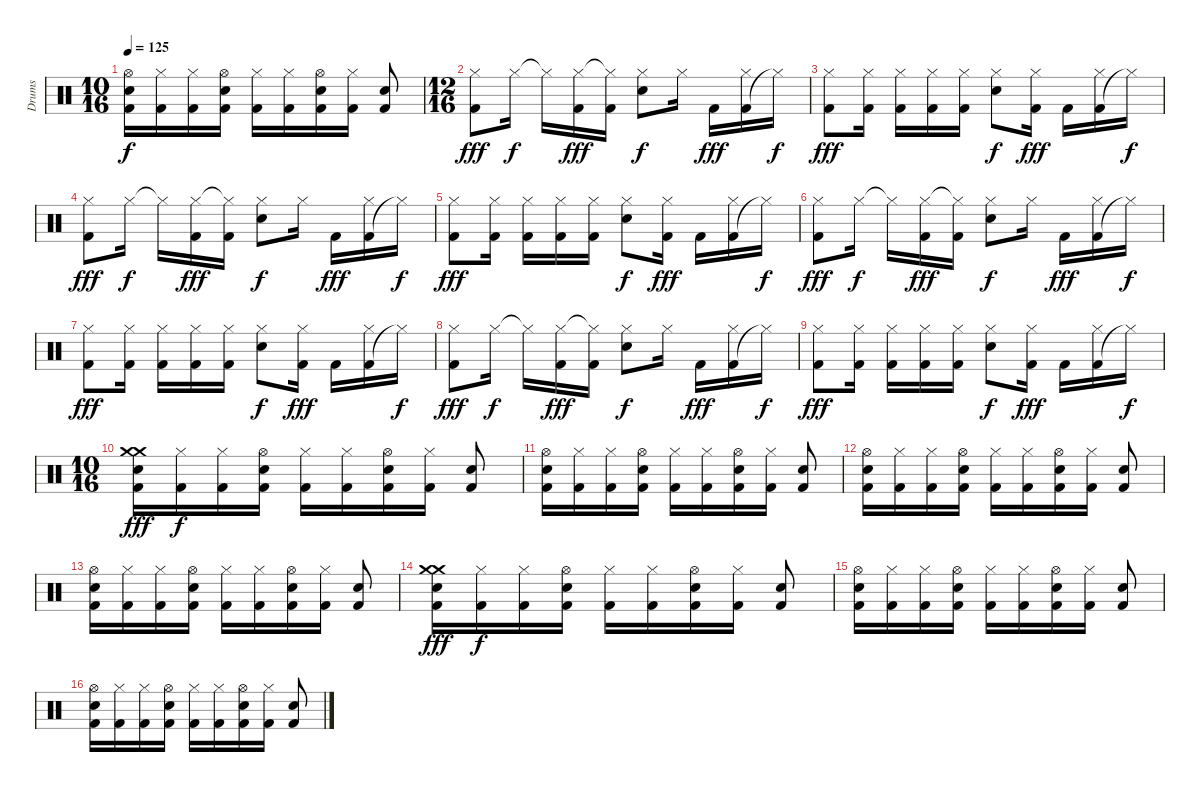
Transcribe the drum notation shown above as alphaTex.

\track ("Drums" "Drums") {instrument percussion}
\staff {score}
\articulation defaults
\ts (10 16)
\tempo 125
\clef neutral
\ks c
("Kick (hit) 2" "Electric Snare (hit)" "Hi-Hat (open)").16{dy f} ("Kick (hit) 2" "Hi-Hat (closed)").16 ("Kick (hit) 2" "Hi-Hat (closed)").16 ("Kick (hit) 2" "Electric Snare (hit)" "Hi-Hat (open)").16 ("Kick (hit) 2" "Hi-Hat (closed)").16 ("Kick (hit) 2" "Hi-Hat (closed)").16 ("Kick (hit) 2" "Electric Snare (hit)" "Hi-Hat (open)").16 ("Kick (hit) 2" "Hi-Hat (closed)").16 ("Kick (hit) 2" "Electric Snare (hit)").8 |
\ts (12 16)
("Kick (hit) 2" "Hi-Hat (closed)").8{dy fff} "Hi-Hat (closed)".16{dy f} "Hi-Hat (closed)"{t}.16 ("Kick (hit) 2" "Hi-Hat (closed)").16{dy fff} ("Kick (hit) 2" "Hi-Hat (closed)"{t}).16 ("Electric Snare (hit)" "Hi-Hat (closed)").8{dy f} "Hi-Hat (closed)".16 "Kick (hit) 2".16{dy fff} ("Kick (hit) 2" "Hi-Hat (closed)").16 "Hi-Hat (closed)"{t}.16{dy f} |
("Kick (hit) 2" "Hi-Hat (closed)").8{dy fff} ("Kick (hit) 2" "Hi-Hat (closed)").16 ("Kick (hit) 2" "Hi-Hat (closed)").16 ("Kick (hit) 2" "Hi-Hat (closed)").16 ("Kick (hit) 2" "Hi-Hat (closed)").16 ("Electric Snare (hit)" "Hi-Hat (closed)").8{dy f} ("Kick (hit) 2" "Hi-Hat (closed)").16{dy fff} "Kick (hit) 2".16 ("Kick (hit) 2" "Hi-Hat (closed)").16 "Hi-Hat (closed)"{t}.16{dy f} |
("Kick (hit) 2" "Hi-Hat (closed)").8{dy fff} "Hi-Hat (closed)".16{dy f} "Hi-Hat (closed)"{t}.16 ("Kick (hit) 2" "Hi-Hat (closed)").16{dy fff} ("Kick (hit) 2" "Hi-Hat (closed)"{t}).16 ("Electric Snare (hit)" "Hi-Hat (closed)").8{dy f} "Hi-Hat (closed)".16 "Kick (hit) 2".16{dy fff} ("Kick (hit) 2" "Hi-Hat (closed)").16 "Hi-Hat (closed)"{t}.16{dy f} |
("Kick (hit) 2" "Hi-Hat (closed)").8{dy fff} ("Kick (hit) 2" "Hi-Hat (closed)").16 ("Kick (hit) 2" "Hi-Hat (closed)").16 ("Kick (hit) 2" "Hi-Hat (closed)").16 ("Kick (hit) 2" "Hi-Hat (closed)").16 ("Electric Snare (hit)" "Hi-Hat (closed)").8{dy f} ("Kick (hit) 2" "Hi-Hat (closed)").16{dy fff} "Kick (hit) 2".16 ("Kick (hit) 2" "Hi-Hat (closed)").16 "Hi-Hat (closed)"{t}.16{dy f} |
("Kick (hit) 2" "Hi-Hat (closed)").8{dy fff} "Hi-Hat (closed)".16{dy f} "Hi-Hat (closed)"{t}.16 ("Kick (hit) 2" "Hi-Hat (closed)").16{dy fff} ("Kick (hit) 2" "Hi-Hat (closed)"{t}).16 ("Electric Snare (hit)" "Hi-Hat (closed)").8{dy f} "Hi-Hat (closed)".16 "Kick (hit) 2".16{dy fff} ("Kick (hit) 2" "Hi-Hat (closed)").16 "Hi-Hat (closed)"{t}.16{dy f} |
("Kick (hit) 2" "Hi-Hat (closed)").8{dy fff} ("Kick (hit) 2" "Hi-Hat (closed)").16 ("Kick (hit) 2" "Hi-Hat (closed)").16 ("Kick (hit) 2" "Hi-Hat (closed)").16 ("Kick (hit) 2" "Hi-Hat (closed)").16 ("Electric Snare (hit)" "Hi-Hat (closed)").8{dy f} ("Kick (hit) 2" "Hi-Hat (closed)").16{dy fff} "Kick (hit) 2".16 ("Kick (hit) 2" "Hi-Hat (closed)").16 "Hi-Hat (closed)"{t}.16{dy f} |
("Kick (hit) 2" "Hi-Hat (closed)").8{dy fff} "Hi-Hat (closed)".16{dy f} "Hi-Hat (closed)"{t}.16 ("Kick (hit) 2" "Hi-Hat (closed)").16{dy fff} ("Kick (hit) 2" "Hi-Hat (closed)"{t}).16 ("Electric Snare (hit)" "Hi-Hat (closed)").8{dy f} "Hi-Hat (closed)".16 "Kick (hit) 2".16{dy fff} ("Kick (hit) 2" "Hi-Hat (closed)").16 "Hi-Hat (closed)"{t}.16{dy f} |
("Kick (hit) 2" "Hi-Hat (closed)").8{dy fff} ("Kick (hit) 2" "Hi-Hat (closed)").16 ("Kick (hit) 2" "Hi-Hat (closed)").16 ("Kick (hit) 2" "Hi-Hat (closed)").16 ("Kick (hit) 2" "Hi-Hat (closed)").16 ("Electric Snare (hit)" "Hi-Hat (closed)").8{dy f} ("Kick (hit) 2" "Hi-Hat (closed)").16{dy fff} "Kick (hit) 2".16 ("Kick (hit) 2" "Hi-Hat (closed)").16 "Hi-Hat (closed)"{t}.16{dy f} |
\ts (10 16)
("Kick (hit) 2" "Electric Snare (hit)" "Crash medium (hit)" "Crash medium (hit)").16{dy fff} ("Kick (hit) 2" "Hi-Hat (closed)").16{dy f} ("Kick (hit) 2" "Hi-Hat (closed)").16 ("Kick (hit) 2" "Electric Snare (hit)" "Hi-Hat (open)").16 ("Kick (hit) 2" "Hi-Hat (closed)").16 ("Kick (hit) 2" "Hi-Hat (closed)").16 ("Kick (hit) 2" "Electric Snare (hit)" "Hi-Hat (open)").16 ("Kick (hit) 2" "Hi-Hat (closed)").16 ("Kick (hit) 2" "Electric Snare (hit)").8 |
("Kick (hit) 2" "Electric Snare (hit)" "Hi-Hat (open)").16 ("Kick (hit) 2" "Hi-Hat (closed)").16 ("Kick (hit) 2" "Hi-Hat (closed)").16 ("Kick (hit) 2" "Electric Snare (hit)" "Hi-Hat (open)").16 ("Kick (hit) 2" "Hi-Hat (closed)").16 ("Kick (hit) 2" "Hi-Hat (closed)").16 ("Kick (hit) 2" "Electric Snare (hit)" "Hi-Hat (open)").16 ("Kick (hit) 2" "Hi-Hat (closed)").16 ("Kick (hit) 2" "Electric Snare (hit)").8 |
("Kick (hit) 2" "Electric Snare (hit)" "Hi-Hat (open)").16 ("Kick (hit) 2" "Hi-Hat (closed)").16 ("Kick (hit) 2" "Hi-Hat (closed)").16 ("Kick (hit) 2" "Electric Snare (hit)" "Hi-Hat (open)").16 ("Kick (hit) 2" "Hi-Hat (closed)").16 ("Kick (hit) 2" "Hi-Hat (closed)").16 ("Kick (hit) 2" "Electric Snare (hit)" "Hi-Hat (open)").16 ("Kick (hit) 2" "Hi-Hat (closed)").16 ("Kick (hit) 2" "Electric Snare (hit)").8 |
("Kick (hit) 2" "Electric Snare (hit)" "Hi-Hat (open)").16 ("Kick (hit) 2" "Hi-Hat (closed)").16 ("Kick (hit) 2" "Hi-Hat (closed)").16 ("Kick (hit) 2" "Electric Snare (hit)" "Hi-Hat (open)").16 ("Kick (hit) 2" "Hi-Hat (closed)").16 ("Kick (hit) 2" "Hi-Hat (closed)").16 ("Kick (hit) 2" "Electric Snare (hit)" "Hi-Hat (open)").16 ("Kick (hit) 2" "Hi-Hat (closed)").16 ("Kick (hit) 2" "Electric Snare (hit)").8 |
("Kick (hit) 2" "Electric Snare (hit)" "Crash medium (hit)" "Crash medium (hit)").16{dy fff} ("Kick (hit) 2" "Hi-Hat (closed)").16{dy f} ("Kick (hit) 2" "Hi-Hat (closed)").16 ("Kick (hit) 2" "Electric Snare (hit)" "Hi-Hat (open)").16 ("Kick (hit) 2" "Hi-Hat (closed)").16 ("Kick (hit) 2" "Hi-Hat (closed)").16 ("Kick (hit) 2" "Electric Snare (hit)" "Hi-Hat (open)").16 ("Kick (hit) 2" "Hi-Hat (closed)").16 ("Kick (hit) 2" "Electric Snare (hit)").8 |
("Kick (hit) 2" "Electric Snare (hit)" "Hi-Hat (open)").16 ("Kick (hit) 2" "Hi-Hat (closed)").16 ("Kick (hit) 2" "Hi-Hat (closed)").16 ("Kick (hit) 2" "Electric Snare (hit)" "Hi-Hat (open)").16 ("Kick (hit) 2" "Hi-Hat (closed)").16 ("Kick (hit) 2" "Hi-Hat (closed)").16 ("Kick (hit) 2" "Electric Snare (hit)" "Hi-Hat (open)").16 ("Kick (hit) 2" "Hi-Hat (closed)").16 ("Kick (hit) 2" "Electric Snare (hit)").8 |
("Kick (hit) 2" "Electric Snare (hit)" "Hi-Hat (open)").16 ("Kick (hit) 2" "Hi-Hat (closed)").16 ("Kick (hit) 2" "Hi-Hat (closed)").16 ("Kick (hit) 2" "Electric Snare (hit)" "Hi-Hat (open)").16 ("Kick (hit) 2" "Hi-Hat (closed)").16 ("Kick (hit) 2" "Hi-Hat (closed)").16 ("Kick (hit) 2" "Electric Snare (hit)" "Hi-Hat (open)").16 ("Kick (hit) 2" "Hi-Hat (closed)").16 ("Kick (hit) 2" "Electric Snare (hit)").8
